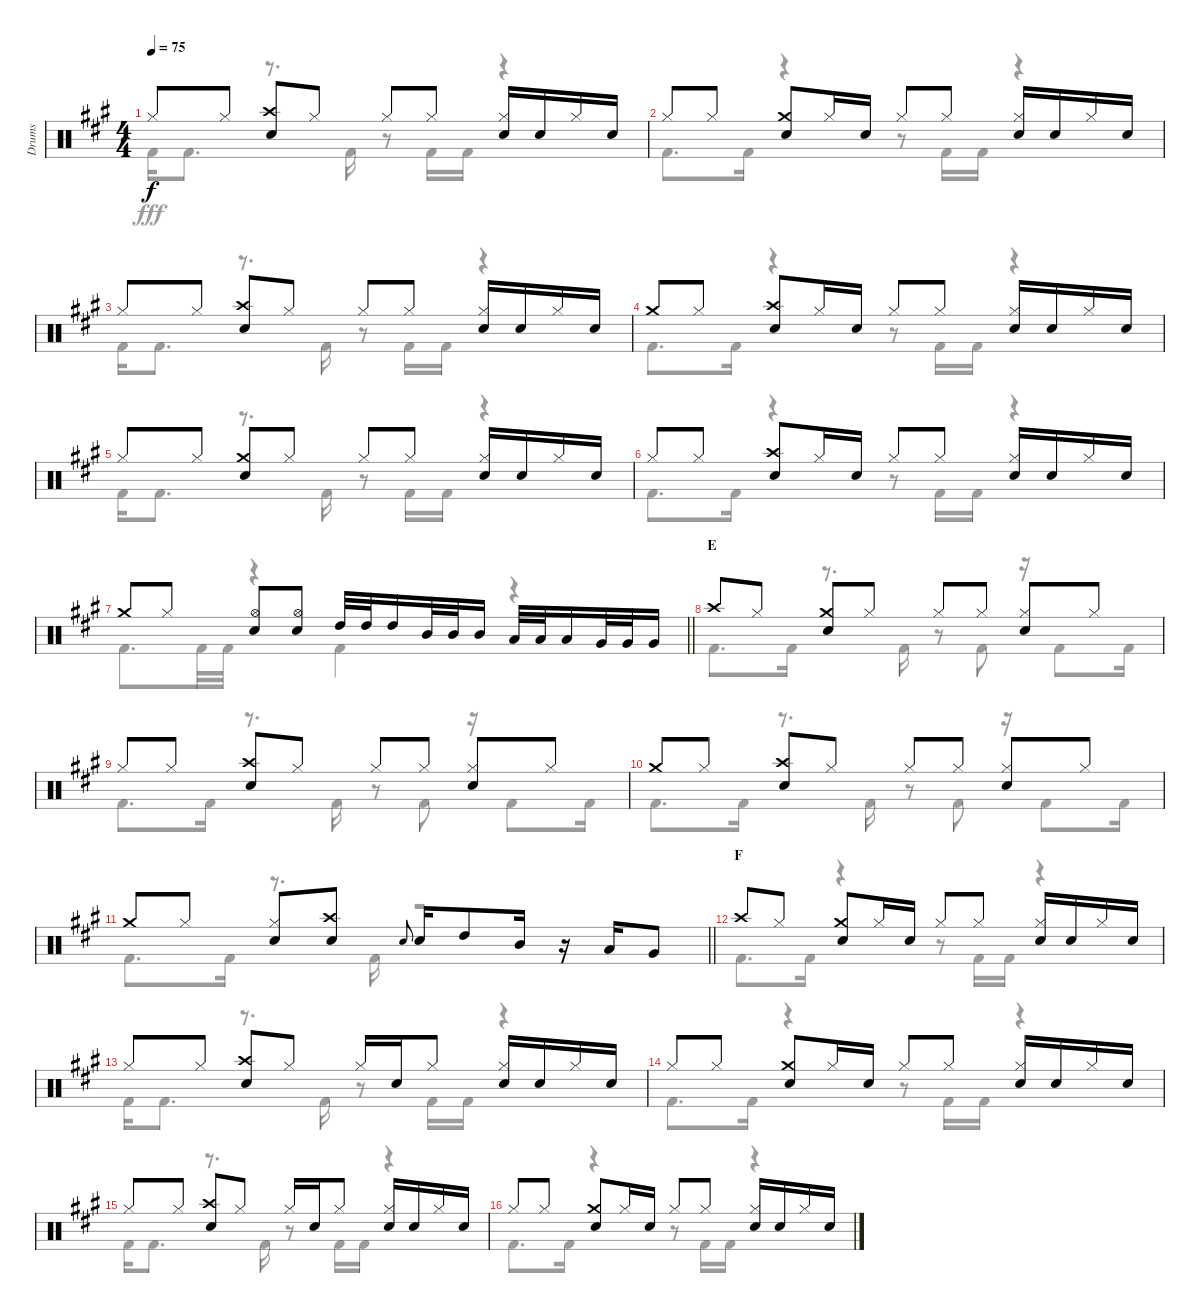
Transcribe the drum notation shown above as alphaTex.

\track ("Drums" "Drums") {instrument percussion}
\staff {score}
\articulation defaults
\voice
\ts (4 4)
\tempo 75
\clef neutral
\ks a "Hi-Hat (closed)".8{dy f} "Hi-Hat (closed)".8
("Crash high (hit)" "Snare (hit) 2").8 "Hi-Hat (closed)".8 "Hi-Hat (closed)".8 "Hi-Hat (closed)".8 ("Hi-Hat (closed)" "Snare (hit) 2").16 "Snare (hit) 2".16 "Hi-Hat (closed)".16 "Snare (hit) 2".16 |
"Hi-Hat (closed)".8 "Hi-Hat (closed)".8 ("Crash medium (hit)" "Snare (hit) 2").8 "Hi-Hat (closed)".16 "Snare (hit) 2".16 "Hi-Hat (closed)".8 "Hi-Hat (closed)".8 ("Hi-Hat (closed)" "Snare (hit) 2").16 "Snare (hit) 2".16 "Hi-Hat (closed)".16 "Snare (hit) 2".16 |
"Hi-Hat (closed)".8 "Hi-Hat (closed)".8 ("Crash high (hit)" "Snare (hit) 2").8 "Hi-Hat (closed)".8 "Hi-Hat (closed)".8 "Hi-Hat (closed)".8 ("Hi-Hat (closed)" "Snare (hit) 2").16 "Snare (hit) 2".16 "Hi-Hat (closed)".16 "Snare (hit) 2".16 |
"Crash medium (hit)".8 "Hi-Hat (closed)".8 ("Crash high (hit)" "Snare (hit) 2").8 "Hi-Hat (closed)".16 "Snare (hit) 2".16 "Hi-Hat (closed)".8 "Hi-Hat (closed)".8 ("Hi-Hat (closed)" "Snare (hit) 2").16 "Snare (hit) 2".16 "Hi-Hat (closed)".16 "Snare (hit) 2".16 |
"Hi-Hat (closed)".8 "Hi-Hat (closed)".8 ("Crash medium (hit)" "Snare (hit) 2").8 "Hi-Hat (closed)".8 "Hi-Hat (closed)".8 "Hi-Hat (closed)".8 ("Hi-Hat (closed)" "Snare (hit) 2").16 "Snare (hit) 2".16 "Hi-Hat (closed)".16 "Snare (hit) 2".16 |
"Hi-Hat (closed)".8 "Hi-Hat (closed)".8 ("Crash high (hit)" "Snare (hit) 2").8 "Hi-Hat (closed)".16 "Snare (hit) 2".16 "Hi-Hat (closed)".8 "Hi-Hat (closed)".8 ("Hi-Hat (closed)" "Snare (hit) 2").16 "Snare (hit) 2".16 "Hi-Hat (closed)".16 "Snare (hit) 2".16 |
\barLineRight lightlight "Crash medium (hit)".8 "Hi-Hat (closed)".8
("Hi-Hat (open)" "Snare (hit) 2").8 ("Hi-Hat (open)" "Snare (hit) 2").8 "High Tom (hit)".32 "High Tom (hit)".32 "High Tom (hit)".16 "Mid Tom (hit)".32 "Mid Tom (hit)".32 "Mid Tom (hit)".16 "Low Tom (hit)".32 "Low Tom (hit)".32 "Low Tom (hit)".16 "Very Low Tom (hit)".32 "Very Low Tom (hit)".32 "Very Low Tom (hit)".16 |
\section ("" "E")
"Crash high (hit)".8 "Hi-Hat (closed)".8 ("Crash medium (hit)" "Snare (hit) 2").8 "Hi-Hat (closed)".8 "Hi-Hat (closed)".8 "Hi-Hat (closed)".8 ("Hi-Hat (closed)" "Snare (hit) 2").8 "Hi-Hat (closed)".8 |
"Hi-Hat (closed)".8 "Hi-Hat (closed)".8 ("Crash high (hit)" "Snare (hit) 2").8 "Hi-Hat (closed)".8 "Hi-Hat (closed)".8 "Hi-Hat (closed)".8 ("Hi-Hat (closed)" "Snare (hit) 2").8 "Hi-Hat (closed)".8 |
"Crash medium (hit)".8 "Hi-Hat (closed)".8 ("Crash high (hit)" "Snare (hit) 2").8 "Hi-Hat (closed)".8 "Hi-Hat (closed)".8 "Hi-Hat (closed)".8 ("Hi-Hat (closed)" "Snare (hit) 2").8 "Hi-Hat (closed)".8 |
\barLineRight lightlight "Crash medium (hit)".8 "Hi-Hat (closed)".8
("Hi-Hat (closed)" "Snare (hit) 2").8 ("Crash high (hit)" "Snare (hit) 2").8 "Snare (hit) 2".8{gr onbeat} "Snare (hit) 2".16 "High Tom (hit)".8 "Mid Tom (hit)".16 r.16 "Low Tom (hit)".16 "Very Low Tom (hit)".8 |
\section ("" "F")
"Crash high (hit)".8 "Hi-Hat (closed)".8 ("Crash medium (hit)" "Snare (hit) 2").8 "Hi-Hat (closed)".16 "Snare (hit) 2".16 "Hi-Hat (closed)".8 "Hi-Hat (closed)".8 ("Hi-Hat (closed)" "Snare (hit) 2").16 "Snare (hit) 2".16 "Hi-Hat (closed)".16 "Snare (hit) 2".16 |
"Hi-Hat (closed)".8 "Hi-Hat (closed)".8 ("Crash high (hit)" "Snare (hit) 2").8 "Hi-Hat (closed)".8 "Hi-Hat (closed)".16 "Snare (hit) 2".16 "Hi-Hat (closed)".8 ("Hi-Hat (closed)" "Snare (hit) 2").16 "Snare (hit) 2".16 "Hi-Hat (closed)".16 "Snare (hit) 2".16 |
"Hi-Hat (closed)".8 "Hi-Hat (closed)".8 ("Crash medium (hit)" "Snare (hit) 2").8 "Hi-Hat (closed)".16 "Snare (hit) 2".16 "Hi-Hat (closed)".8 "Hi-Hat (closed)".8 ("Hi-Hat (closed)" "Snare (hit) 2").16 "Snare (hit) 2".16 "Hi-Hat (closed)".16 "Snare (hit) 2".16 |
"Hi-Hat (closed)".8 "Hi-Hat (closed)".8 ("Crash high (hit)" "Snare (hit) 2").8 "Hi-Hat (closed)".8 "Hi-Hat (closed)".16 "Snare (hit) 2".16 "Hi-Hat (closed)".8 ("Hi-Hat (closed)" "Snare (hit) 2").16 "Snare (hit) 2".16 "Hi-Hat (closed)".16 "Snare (hit) 2".16 |
"Hi-Hat (closed)".8 "Hi-Hat (closed)".8 ("Crash medium (hit)" "Snare (hit) 2").8 "Hi-Hat (closed)".16 "Snare (hit) 2".16 "Hi-Hat (closed)".8 "Hi-Hat (closed)".8 ("Hi-Hat (closed)" "Snare (hit) 2").16 "Snare (hit) 2".16 "Hi-Hat (closed)".16 "Snare (hit) 2".16
\voice
\clef neutral
\ottava regular
\simile none
\ks a "Kick (hit) 2".16{dy fff} "Kick (hit) 2".8{d}
r.8{d} "Kick (hit) 2".16 r.8 "Kick (hit) 2".16 "Kick (hit) 2".16 r.4 |
"Kick (hit) 2".8{d} "Kick (hit) 2".16 r.4 r.8 "Kick (hit) 2".16 "Kick (hit) 2".16 r.4 |
"Kick (hit) 2".16 "Kick (hit) 2".8{d} r.8{d} "Kick (hit) 2".16 r.8 "Kick (hit) 2".16 "Kick (hit) 2".16 r.4 |
"Kick (hit) 2".8{d} "Kick (hit) 2".16 r.4 r.8 "Kick (hit) 2".16 "Kick (hit) 2".16 r.4 |
"Kick (hit) 2".16 "Kick (hit) 2".8{d} r.8{d} "Kick (hit) 2".16 r.8 "Kick (hit) 2".16 "Kick (hit) 2".16 r.4 |
"Kick (hit) 2".8{d} "Kick (hit) 2".16 r.4 r.8 "Kick (hit) 2".16 "Kick (hit) 2".16 r.4 |
\barLineRight lightlight "Kick (hit) 2".8{d} "Kick (hit) 2".32 "Kick (hit) 2".32
r.4 "Kick (hit) 2".4 r.4 |
"Kick (hit) 2".8{d} "Kick (hit) 2".16 r.8{d} "Kick (hit) 2".16 r.8 "Kick (hit) 2".8 r.16 "Kick (hit) 2".8 "Kick (hit) 2".16 |
"Kick (hit) 2".8{d} "Kick (hit) 2".16 r.8{d} "Kick (hit) 2".16 r.8 "Kick (hit) 2".8 r.16 "Kick (hit) 2".8 "Kick (hit) 2".16 |
"Kick (hit) 2".8{d} "Kick (hit) 2".16 r.8{d} "Kick (hit) 2".16 r.8 "Kick (hit) 2".8 r.16 "Kick (hit) 2".8 "Kick (hit) 2".16 |
\barLineRight lightlight "Kick (hit) 2".8{d} "Kick (hit) 2".16
r.8{d} "Kick (hit) 2".16 r.2 |
"Kick (hit) 2".8{d} "Kick (hit) 2".16 r.4 r.8 "Kick (hit) 2".16 "Kick (hit) 2".16 r.4 |
"Kick (hit) 2".16 "Kick (hit) 2".8{d} r.8{d} "Kick (hit) 2".16 r.8 "Kick (hit) 2".16 "Kick (hit) 2".16 r.4 |
"Kick (hit) 2".8{d} "Kick (hit) 2".16 r.4 r.8 "Kick (hit) 2".16 "Kick (hit) 2".16 r.4 |
"Kick (hit) 2".16 "Kick (hit) 2".8{d} r.8{d} "Kick (hit) 2".16 r.8 "Kick (hit) 2".16 "Kick (hit) 2".16 r.4 |
"Kick (hit) 2".8{d} "Kick (hit) 2".16 r.4 r.8 "Kick (hit) 2".16 "Kick (hit) 2".16 r.4
